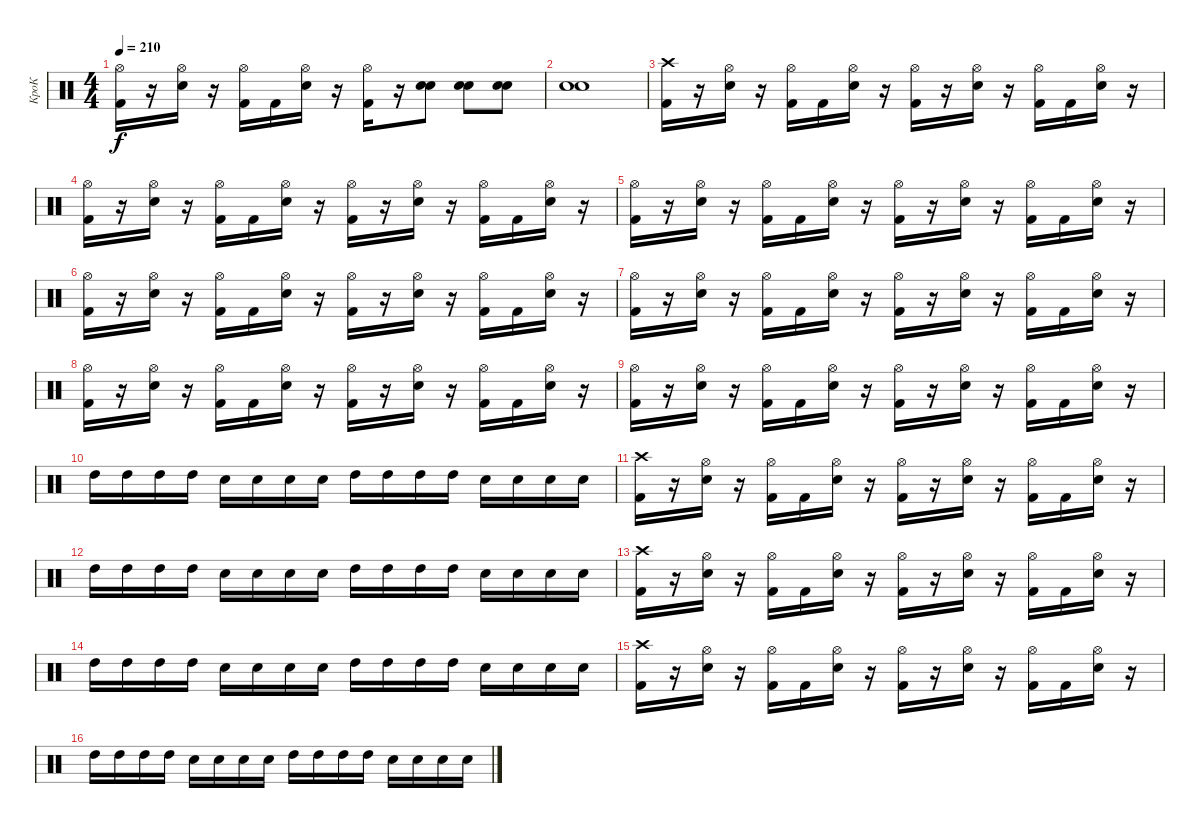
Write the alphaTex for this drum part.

\track ("КроК" "КроК") {instrument percussion}
\staff {score}
\articulation defaults
\ts (4 4)
\tempo 210
\clef neutral
\ks c
("Hi-Hat (open)" "Kick (hit) 2").16{dy f} r.16 ("Hi-Hat (open)" "Electric Snare (hit)").16 r.16 ("Hi-Hat (open)" "Kick (hit) 2").16 "Kick (hit) 2".16 ("Hi-Hat (open)" "Electric Snare (hit)").16 r.16 ("Hi-Hat (open)" "Kick (hit) 2").16 r.16 ("Electric Snare (hit)" "Electric Snare (hit)").8 ("Electric Snare (hit)" "Electric Snare (hit)").8 ("Electric Snare (hit)" "Electric Snare (hit)").8 |
("Electric Snare (hit)" "Electric Snare (hit)").1 |
("Crash high (hit)" "Kick (hit) 2").16 r.16 ("Hi-Hat (open)" "Electric Snare (hit)").16 r.16 ("Hi-Hat (open)" "Kick (hit) 2").16 "Kick (hit) 2".16 ("Hi-Hat (open)" "Electric Snare (hit)").16 r.16 ("Hi-Hat (open)" "Kick (hit) 2").16 r.16 ("Hi-Hat (open)" "Electric Snare (hit)").16 r.16 ("Hi-Hat (open)" "Kick (hit) 2").16 "Kick (hit) 2".16 ("Hi-Hat (open)" "Electric Snare (hit)").16 r.16 |
("Hi-Hat (open)" "Kick (hit) 2").16 r.16 ("Hi-Hat (open)" "Electric Snare (hit)").16 r.16 ("Hi-Hat (open)" "Kick (hit) 2").16 "Kick (hit) 2".16 ("Hi-Hat (open)" "Electric Snare (hit)").16 r.16 ("Hi-Hat (open)" "Kick (hit) 2").16 r.16 ("Hi-Hat (open)" "Electric Snare (hit)").16 r.16 ("Hi-Hat (open)" "Kick (hit) 2").16 "Kick (hit) 2".16 ("Hi-Hat (open)" "Electric Snare (hit)").16 r.16 |
("Hi-Hat (open)" "Kick (hit) 2").16 r.16 ("Hi-Hat (open)" "Electric Snare (hit)").16 r.16 ("Hi-Hat (open)" "Kick (hit) 2").16 "Kick (hit) 2".16 ("Hi-Hat (open)" "Electric Snare (hit)").16 r.16 ("Hi-Hat (open)" "Kick (hit) 2").16 r.16 ("Hi-Hat (open)" "Electric Snare (hit)").16 r.16 ("Hi-Hat (open)" "Kick (hit) 2").16 "Kick (hit) 2".16 ("Hi-Hat (open)" "Electric Snare (hit)").16 r.16 |
("Hi-Hat (open)" "Kick (hit) 2").16 r.16 ("Hi-Hat (open)" "Electric Snare (hit)").16 r.16 ("Hi-Hat (open)" "Kick (hit) 2").16 "Kick (hit) 2".16 ("Hi-Hat (open)" "Electric Snare (hit)").16 r.16 ("Hi-Hat (open)" "Kick (hit) 2").16 r.16 ("Hi-Hat (open)" "Electric Snare (hit)").16 r.16 ("Hi-Hat (open)" "Kick (hit) 2").16 "Kick (hit) 2".16 ("Hi-Hat (open)" "Electric Snare (hit)").16 r.16 |
("Hi-Hat (open)" "Kick (hit) 2").16 r.16 ("Hi-Hat (open)" "Electric Snare (hit)").16 r.16 ("Hi-Hat (open)" "Kick (hit) 2").16 "Kick (hit) 2".16 ("Hi-Hat (open)" "Electric Snare (hit)").16 r.16 ("Hi-Hat (open)" "Kick (hit) 2").16 r.16 ("Hi-Hat (open)" "Electric Snare (hit)").16 r.16 ("Hi-Hat (open)" "Kick (hit) 2").16 "Kick (hit) 2".16 ("Hi-Hat (open)" "Electric Snare (hit)").16 r.16 |
("Hi-Hat (open)" "Kick (hit) 2").16 r.16 ("Hi-Hat (open)" "Electric Snare (hit)").16 r.16 ("Hi-Hat (open)" "Kick (hit) 2").16 "Kick (hit) 2".16 ("Hi-Hat (open)" "Electric Snare (hit)").16 r.16 ("Hi-Hat (open)" "Kick (hit) 2").16 r.16 ("Hi-Hat (open)" "Electric Snare (hit)").16 r.16 ("Hi-Hat (open)" "Kick (hit) 2").16 "Kick (hit) 2".16 ("Hi-Hat (open)" "Electric Snare (hit)").16 r.16 |
("Hi-Hat (open)" "Kick (hit) 2").16 r.16 ("Hi-Hat (open)" "Electric Snare (hit)").16 r.16 ("Hi-Hat (open)" "Kick (hit) 2").16 "Kick (hit) 2".16 ("Hi-Hat (open)" "Electric Snare (hit)").16 r.16 ("Hi-Hat (open)" "Kick (hit) 2").16 r.16 ("Hi-Hat (open)" "Electric Snare (hit)").16 r.16 ("Hi-Hat (open)" "Kick (hit) 2").16 "Kick (hit) 2".16 ("Hi-Hat (open)" "Electric Snare (hit)").16 r.16 |
"High Tom (hit)".16 "High Tom (hit)".16 "High Tom (hit)".16 "High Tom (hit)".16 "Electric Snare (hit)".16 "Electric Snare (hit)".16 "Electric Snare (hit)".16 "Electric Snare (hit)".16 "High Tom (hit)".16 "High Tom (hit)".16 "High Tom (hit)".16 "High Tom (hit)".16 "Electric Snare (hit)".16 "Electric Snare (hit)".16 "Electric Snare (hit)".16 "Electric Snare (hit)".16 |
("Crash high (hit)" "Kick (hit) 2").16 r.16 ("Hi-Hat (open)" "Electric Snare (hit)").16 r.16 ("Hi-Hat (open)" "Kick (hit) 2").16 "Kick (hit) 2".16 ("Hi-Hat (open)" "Electric Snare (hit)").16 r.16 ("Hi-Hat (open)" "Kick (hit) 2").16 r.16 ("Hi-Hat (open)" "Electric Snare (hit)").16 r.16 ("Hi-Hat (open)" "Kick (hit) 2").16 "Kick (hit) 2".16 ("Hi-Hat (open)" "Electric Snare (hit)").16 r.16 |
"High Tom (hit)".16 "High Tom (hit)".16 "High Tom (hit)".16 "High Tom (hit)".16 "Electric Snare (hit)".16 "Electric Snare (hit)".16 "Electric Snare (hit)".16 "Electric Snare (hit)".16 "High Tom (hit)".16 "High Tom (hit)".16 "High Tom (hit)".16 "High Tom (hit)".16 "Electric Snare (hit)".16 "Electric Snare (hit)".16 "Electric Snare (hit)".16 "Electric Snare (hit)".16 |
("Crash high (hit)" "Kick (hit) 2").16 r.16 ("Hi-Hat (open)" "Electric Snare (hit)").16 r.16 ("Hi-Hat (open)" "Kick (hit) 2").16 "Kick (hit) 2".16 ("Hi-Hat (open)" "Electric Snare (hit)").16 r.16 ("Hi-Hat (open)" "Kick (hit) 2").16 r.16 ("Hi-Hat (open)" "Electric Snare (hit)").16 r.16 ("Hi-Hat (open)" "Kick (hit) 2").16 "Kick (hit) 2".16 ("Hi-Hat (open)" "Electric Snare (hit)").16 r.16 |
"High Tom (hit)".16 "High Tom (hit)".16 "High Tom (hit)".16 "High Tom (hit)".16 "Electric Snare (hit)".16 "Electric Snare (hit)".16 "Electric Snare (hit)".16 "Electric Snare (hit)".16 "High Tom (hit)".16 "High Tom (hit)".16 "High Tom (hit)".16 "High Tom (hit)".16 "Electric Snare (hit)".16 "Electric Snare (hit)".16 "Electric Snare (hit)".16 "Electric Snare (hit)".16 |
("Crash high (hit)" "Kick (hit) 2").16 r.16 ("Hi-Hat (open)" "Electric Snare (hit)").16 r.16 ("Hi-Hat (open)" "Kick (hit) 2").16 "Kick (hit) 2".16 ("Hi-Hat (open)" "Electric Snare (hit)").16 r.16 ("Hi-Hat (open)" "Kick (hit) 2").16 r.16 ("Hi-Hat (open)" "Electric Snare (hit)").16 r.16 ("Hi-Hat (open)" "Kick (hit) 2").16 "Kick (hit) 2".16 ("Hi-Hat (open)" "Electric Snare (hit)").16 r.16 |
"High Tom (hit)".16 "High Tom (hit)".16 "High Tom (hit)".16 "High Tom (hit)".16 "Electric Snare (hit)".16 "Electric Snare (hit)".16 "Electric Snare (hit)".16 "Electric Snare (hit)".16 "High Tom (hit)".16 "High Tom (hit)".16 "High Tom (hit)".16 "High Tom (hit)".16 "Electric Snare (hit)".16 "Electric Snare (hit)".16 "Electric Snare (hit)".16 "Electric Snare (hit)".16
